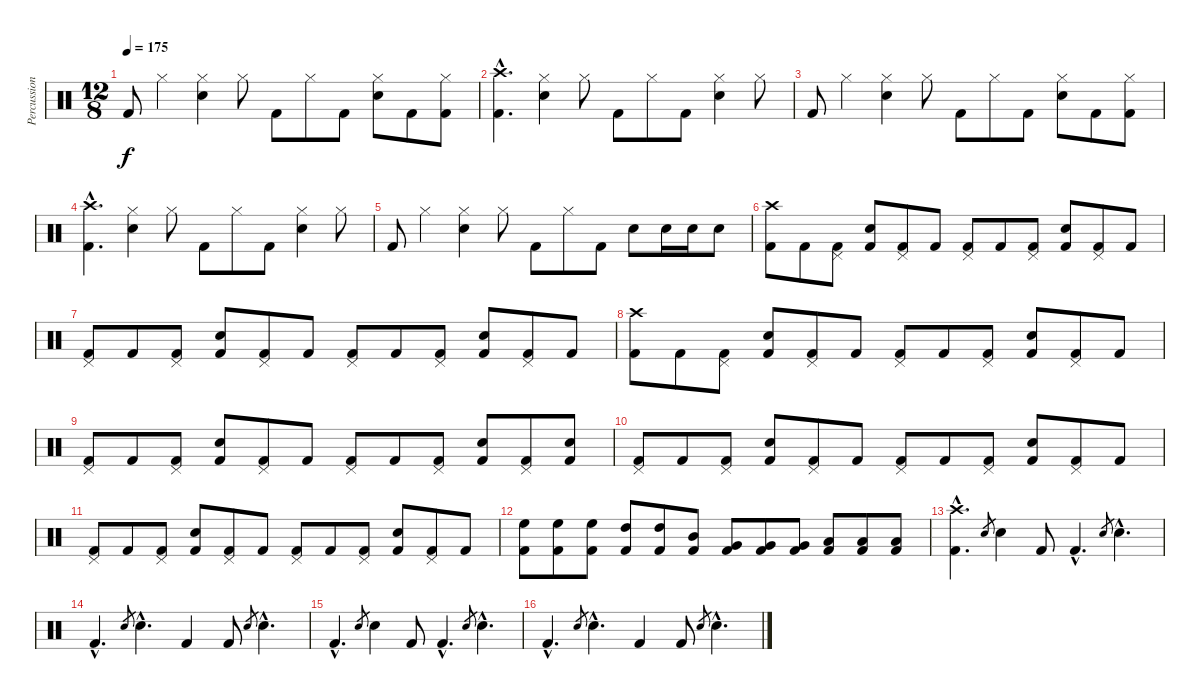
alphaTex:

\track ("Percussion" "Percussion") {instrument percussion}
\staff {score}
\articulation defaults
\ts (12 8)
\tempo 175
\clef neutral
\ks c "Kick (hit) 2".8{dy f} "Hi-Hat (closed)".4
("Snare (hit) 2" "Hi-Hat (closed)").4 "Hi-Hat (closed)".8 "Kick (hit) 2".8 "Hi-Hat (closed)".8 "Kick (hit) 2".8 ("Snare (hit) 2" "Hi-Hat (closed)").8 "Kick (hit) 2".8 ("Kick (hit) 2" "Hi-Hat (closed)").8 |
("Kick (hit) 2"{hac} "Crash high (hit)"{hac}).4{d} ("Snare (hit) 2" "Hi-Hat (closed)").4 "Hi-Hat (closed)".8 "Kick (hit) 2".8 "Hi-Hat (closed)".8 "Kick (hit) 2".8 ("Snare (hit) 2" "Hi-Hat (closed)").4 "Hi-Hat (closed)".8 |
"Kick (hit) 2".8 "Hi-Hat (closed)".4 ("Snare (hit) 2" "Hi-Hat (closed)").4 "Hi-Hat (closed)".8 "Kick (hit) 2".8 "Hi-Hat (closed)".8 "Kick (hit) 2".8 ("Snare (hit) 2" "Hi-Hat (closed)").8 "Kick (hit) 2".8 ("Kick (hit) 2" "Hi-Hat (closed)").8 |
("Kick (hit) 2"{hac} "Crash high (hit)"{hac}).4{d} ("Snare (hit) 2" "Hi-Hat (closed)").4 "Hi-Hat (closed)".8 "Kick (hit) 2".8 "Hi-Hat (closed)".8 "Kick (hit) 2".8 ("Snare (hit) 2" "Hi-Hat (closed)").4 "Hi-Hat (closed)".8 |
"Kick (hit) 2".8 "Hi-Hat (closed)".4 ("Snare (hit) 2" "Hi-Hat (closed)").4 "Hi-Hat (closed)".8 "Kick (hit) 2".8 "Hi-Hat (closed)".8 "Kick (hit) 2".8 "Snare (hit) 2".8 "Snare (hit) 2".16 "Snare (hit) 2".16 "Snare (hit) 2".8 |
("Kick (hit) 2" "Crash high (hit)").8 "Kick (hit) 2".8 ("Kick (hit) 2" "Pedal Hi-Hat (hit)").8 ("Kick (hit) 2" "Snare (hit) 2").8 ("Kick (hit) 2" "Pedal Hi-Hat (hit)").8 "Kick (hit) 2".8 ("Kick (hit) 2" "Pedal Hi-Hat (hit)").8 "Kick (hit) 2".8 ("Kick (hit) 2" "Pedal Hi-Hat (hit)").8 ("Kick (hit) 2" "Snare (hit) 2").8 ("Kick (hit) 2" "Pedal Hi-Hat (hit)").8 "Kick (hit) 2".8 |
("Kick (hit) 2" "Pedal Hi-Hat (hit)").8 "Kick (hit) 2".8 ("Kick (hit) 2" "Pedal Hi-Hat (hit)").8 ("Kick (hit) 2" "Snare (hit) 2").8 ("Kick (hit) 2" "Pedal Hi-Hat (hit)").8 "Kick (hit) 2".8 ("Kick (hit) 2" "Pedal Hi-Hat (hit)").8 "Kick (hit) 2".8 ("Kick (hit) 2" "Pedal Hi-Hat (hit)").8 ("Kick (hit) 2" "Snare (hit) 2").8 ("Kick (hit) 2" "Pedal Hi-Hat (hit)").8 "Kick (hit) 2".8 |
("Kick (hit) 2" "Crash high (hit)").8 "Kick (hit) 2".8 ("Kick (hit) 2" "Pedal Hi-Hat (hit)").8 ("Kick (hit) 2" "Snare (hit) 2").8 ("Kick (hit) 2" "Pedal Hi-Hat (hit)").8 "Kick (hit) 2".8 ("Kick (hit) 2" "Pedal Hi-Hat (hit)").8 "Kick (hit) 2".8 ("Kick (hit) 2" "Pedal Hi-Hat (hit)").8 ("Kick (hit) 2" "Snare (hit) 2").8 ("Kick (hit) 2" "Pedal Hi-Hat (hit)").8 "Kick (hit) 2".8 |
("Kick (hit) 2" "Pedal Hi-Hat (hit)").8 "Kick (hit) 2".8 ("Kick (hit) 2" "Pedal Hi-Hat (hit)").8 ("Kick (hit) 2" "Snare (hit) 2").8 ("Kick (hit) 2" "Pedal Hi-Hat (hit)").8 "Kick (hit) 2".8 ("Kick (hit) 2" "Pedal Hi-Hat (hit)").8 "Kick (hit) 2".8 ("Kick (hit) 2" "Pedal Hi-Hat (hit)").8 ("Kick (hit) 2" "Snare (hit) 2").8 ("Kick (hit) 2" "Pedal Hi-Hat (hit)").8 ("Kick (hit) 2" "Snare (hit) 2").8 |
("Kick (hit) 2" "Pedal Hi-Hat (hit)").8 "Kick (hit) 2".8 ("Kick (hit) 2" "Pedal Hi-Hat (hit)").8 ("Kick (hit) 2" "Snare (hit) 2").8 ("Kick (hit) 2" "Pedal Hi-Hat (hit)").8 "Kick (hit) 2".8 ("Kick (hit) 2" "Pedal Hi-Hat (hit)").8 "Kick (hit) 2".8 ("Kick (hit) 2" "Pedal Hi-Hat (hit)").8 ("Kick (hit) 2" "Snare (hit) 2").8 ("Kick (hit) 2" "Pedal Hi-Hat (hit)").8 "Kick (hit) 2".8 |
("Kick (hit) 2" "Pedal Hi-Hat (hit)").8 "Kick (hit) 2".8 ("Kick (hit) 2" "Pedal Hi-Hat (hit)").8 ("Kick (hit) 2" "Snare (hit) 2").8 ("Kick (hit) 2" "Pedal Hi-Hat (hit)").8 "Kick (hit) 2".8 ("Kick (hit) 2" "Pedal Hi-Hat (hit)").8 "Kick (hit) 2".8 ("Kick (hit) 2" "Pedal Hi-Hat (hit)").8 ("Kick (hit) 2" "Snare (hit) 2").8 ("Kick (hit) 2" "Pedal Hi-Hat (hit)").8 "Kick (hit) 2".8 |
("Kick (hit) 2" "High Floor Tom (hit)").8 ("Kick (hit) 2" "High Floor Tom (hit)").8 ("Kick (hit) 2" "High Floor Tom (hit)").8 ("Kick (hit) 2" "High Tom (hit)").8 ("Kick (hit) 2" "High Tom (hit)").8 ("Kick (hit) 2" "Mid Tom (hit)").8 ("Kick (hit) 2" "Very Low Tom (hit)").8 ("Kick (hit) 2" "Very Low Tom (hit)").8 ("Kick (hit) 2" "Very Low Tom (hit)").8 ("Kick (hit) 2" "Low Floor Tom (hit)").8 ("Kick (hit) 2" "Low Floor Tom (hit)").8 ("Kick (hit) 2" "Low Floor Tom (hit)").8 |
("Kick (hit) 2"{hac} "Crash high (hit)"{hac}).4{d} "Snare (hit) 2".8{gr} "Snare (hit) 2".4 "Kick (hit) 2".8 "Kick (hit) 2"{hac}.4{d} "Snare (hit) 2".8{gr} "Snare (hit) 2"{hac}.4{d} |
"Kick (hit) 2"{hac}.4{d} "Snare (hit) 2".8{gr} "Snare (hit) 2"{hac}.4{d} "Kick (hit) 2".4 "Kick (hit) 2".8 "Snare (hit) 2".8{gr} "Snare (hit) 2"{hac}.4{d} |
"Kick (hit) 2"{hac}.4{d} "Snare (hit) 2".8{gr} "Snare (hit) 2".4 "Kick (hit) 2".8 "Kick (hit) 2"{hac}.4{d} "Snare (hit) 2".8{gr} "Snare (hit) 2"{hac}.4{d} |
"Kick (hit) 2"{hac}.4{d} "Snare (hit) 2".8{gr} "Snare (hit) 2"{hac}.4{d} "Kick (hit) 2".4 "Kick (hit) 2".8 "Snare (hit) 2".8{gr} "Snare (hit) 2"{hac}.4{d}
